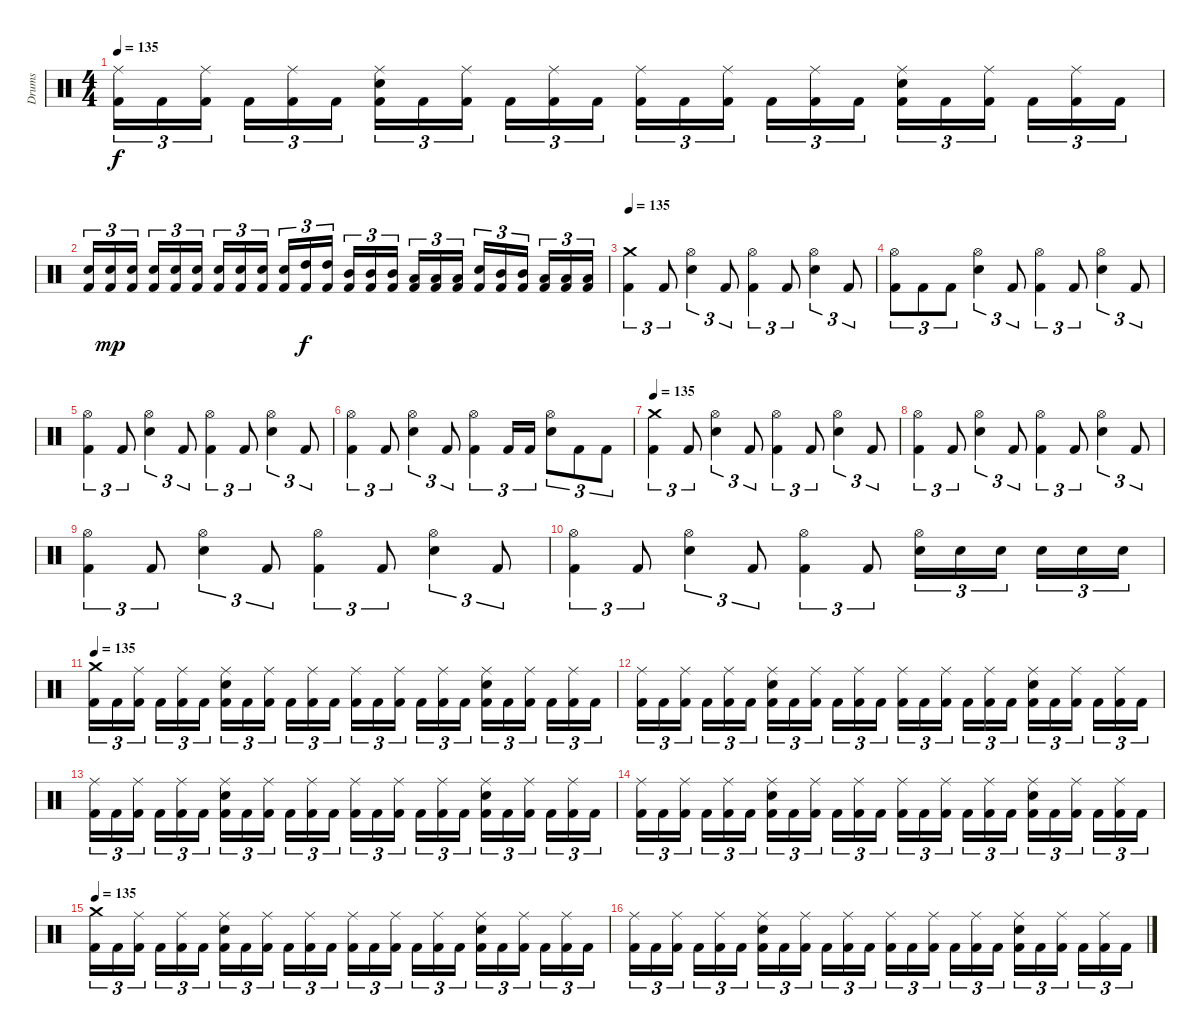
\track ("Drums" "Drums") {instrument percussion}
\staff {score}
\articulation defaults
\ts (4 4)
\tempo 135
\clef neutral
\ks c
("Ride (middle)" "Kick (hit) 2").16{tu (3 2) dy f} "Kick (hit) 2".16{tu (3 2)} ("Ride (middle)" "Kick (hit) 2").16{tu (3 2)} "Kick (hit) 2".16{tu (3 2)} ("Ride (middle)" "Kick (hit) 2").16{tu (3 2)} "Kick (hit) 2".16{tu (3 2)} ("Ride (middle)" "Electric Snare (hit)" "Kick (hit) 2").16{tu (3 2)} "Kick (hit) 2".16{tu (3 2)} ("Ride (middle)" "Kick (hit) 2").16{tu (3 2)} "Kick (hit) 2".16{tu (3 2)} ("Ride (middle)" "Kick (hit) 2").16{tu (3 2)} "Kick (hit) 2".16{tu (3 2)} ("Ride (middle)" "Kick (hit) 2").16{tu (3 2)} "Kick (hit) 2".16{tu (3 2)} ("Ride (middle)" "Kick (hit) 2").16{tu (3 2)} "Kick (hit) 2".16{tu (3 2)} ("Ride (middle)" "Kick (hit) 2").16{tu (3 2)} "Kick (hit) 2".16{tu (3 2)} ("Ride (middle)" "Electric Snare (hit)" "Kick (hit) 2").16{tu (3 2)} "Kick (hit) 2".16{tu (3 2)} ("Ride (middle)" "Kick (hit) 2").16{tu (3 2)} "Kick (hit) 2".16{tu (3 2)} ("Ride (middle)" "Kick (hit) 2").16{tu (3 2)} "Kick (hit) 2".16{tu (3 2)} |
("Electric Snare (hit)" "Kick (hit) 2").16{tu (3 2)} ("Electric Snare (hit)" "Kick (hit) 2").16{tu (3 2) dy mp} ("Electric Snare (hit)" "Kick (hit) 2").16{tu (3 2)} ("Electric Snare (hit)" "Kick (hit) 2").16{tu (3 2)} ("Electric Snare (hit)" "Kick (hit) 2").16{tu (3 2)} ("Electric Snare (hit)" "Kick (hit) 2").16{tu (3 2)} ("Electric Snare (hit)" "Kick (hit) 2").16{tu (3 2)} ("Electric Snare (hit)" "Kick (hit) 2").16{tu (3 2)} ("Electric Snare (hit)" "Kick (hit) 2").16{tu (3 2)} ("Electric Snare (hit)" "Kick (hit) 2").16{tu (3 2)} ("High Tom (hit)" "Kick (hit) 2").16{tu (3 2) dy f} ("High Tom (hit)" "Kick (hit) 2").16{tu (3 2)} ("Mid Tom (hit)" "Kick (hit) 2").16{tu (3 2)} ("Mid Tom (hit)" "Kick (hit) 2").16{tu (3 2)} ("Mid Tom (hit)" "Kick (hit) 2").16{tu (3 2)} ("Low Tom (hit)" "Kick (hit) 2").16{tu (3 2)} ("Low Tom (hit)" "Kick (hit) 2").16{tu (3 2)} ("Low Tom (hit)" "Kick (hit) 2").16{tu (3 2)} ("Electric Snare (hit)" "Kick (hit) 2").16{tu (3 2)} ("Mid Tom (hit)" "Kick (hit) 2").16{tu (3 2)} ("Mid Tom (hit)" "Kick (hit) 2").16{tu (3 2)} ("Low Tom (hit)" "Kick (hit) 2").16{tu (3 2)} ("Low Tom (hit)" "Kick (hit) 2").16{tu (3 2)} ("Low Tom (hit)" "Kick (hit) 2").16{tu (3 2)} |
\tempo 135
("Crash medium (hit)" "Kick (hit) 2").4{tu (3 2)} "Kick (hit) 2".8{tu (3 2)} ("Hi-Hat (open)" "Electric Snare (hit)").4{tu (3 2)} "Kick (hit) 2".8{tu (3 2)} ("Hi-Hat (open)" "Kick (hit) 2").4{tu (3 2)} "Kick (hit) 2".8{tu (3 2)} ("Hi-Hat (open)" "Electric Snare (hit)").4{tu (3 2)} "Kick (hit) 2".8{tu (3 2)} |
("Hi-Hat (open)" "Kick (hit) 2").8{tu (3 2)} "Kick (hit) 2".8{tu (3 2)} "Kick (hit) 2".8{tu (3 2)} ("Hi-Hat (open)" "Electric Snare (hit)").4{tu (3 2)} "Kick (hit) 2".8{tu (3 2)} ("Hi-Hat (open)" "Kick (hit) 2").4{tu (3 2)} "Kick (hit) 2".8{tu (3 2)} ("Hi-Hat (open)" "Electric Snare (hit)").4{tu (3 2)} "Kick (hit) 2".8{tu (3 2)} |
("Hi-Hat (open)" "Kick (hit) 2").4{tu (3 2)} "Kick (hit) 2".8{tu (3 2)} ("Hi-Hat (open)" "Electric Snare (hit)").4{tu (3 2)} "Kick (hit) 2".8{tu (3 2)} ("Hi-Hat (open)" "Kick (hit) 2").4{tu (3 2)} "Kick (hit) 2".8{tu (3 2)} ("Hi-Hat (open)" "Electric Snare (hit)").4{tu (3 2)} "Kick (hit) 2".8{tu (3 2)} |
("Hi-Hat (open)" "Kick (hit) 2").4{tu (3 2)} "Kick (hit) 2".8{tu (3 2)} ("Hi-Hat (open)" "Electric Snare (hit)").4{tu (3 2)} "Kick (hit) 2".8{tu (3 2)} ("Hi-Hat (open)" "Kick (hit) 2").4{tu (3 2)} "Kick (hit) 2".16{tu (3 2)} "Kick (hit) 2".16{tu (3 2)} ("Hi-Hat (open)" "Electric Snare (hit)").8{tu (3 2)} "Kick (hit) 2".8{tu (3 2)} "Kick (hit) 2".8{tu (3 2)} |
\tempo 135
("Crash medium (hit)" "Kick (hit) 2").4{tu (3 2)} "Kick (hit) 2".8{tu (3 2)} ("Hi-Hat (open)" "Electric Snare (hit)").4{tu (3 2)} "Kick (hit) 2".8{tu (3 2)} ("Hi-Hat (open)" "Kick (hit) 2").4{tu (3 2)} "Kick (hit) 2".8{tu (3 2)} ("Hi-Hat (open)" "Electric Snare (hit)").4{tu (3 2)} "Kick (hit) 2".8{tu (3 2)} |
("Hi-Hat (open)" "Kick (hit) 2").4{tu (3 2)} "Kick (hit) 2".8{tu (3 2)} ("Hi-Hat (open)" "Electric Snare (hit)").4{tu (3 2)} "Kick (hit) 2".8{tu (3 2)} ("Hi-Hat (open)" "Kick (hit) 2").4{tu (3 2)} "Kick (hit) 2".8{tu (3 2)} ("Hi-Hat (open)" "Electric Snare (hit)").4{tu (3 2)} "Kick (hit) 2".8{tu (3 2)} |
("Hi-Hat (open)" "Kick (hit) 2").4{tu (3 2)} "Kick (hit) 2".8{tu (3 2)} ("Hi-Hat (open)" "Electric Snare (hit)").4{tu (3 2)} "Kick (hit) 2".8{tu (3 2)} ("Hi-Hat (open)" "Kick (hit) 2").4{tu (3 2)} "Kick (hit) 2".8{tu (3 2)} ("Hi-Hat (open)" "Electric Snare (hit)").4{tu (3 2)} "Kick (hit) 2".8{tu (3 2)} |
("Hi-Hat (open)" "Kick (hit) 2").4{tu (3 2)} "Kick (hit) 2".8{tu (3 2)} ("Hi-Hat (open)" "Electric Snare (hit)").4{tu (3 2)} "Kick (hit) 2".8{tu (3 2)} ("Hi-Hat (open)" "Kick (hit) 2").4{tu (3 2)} "Kick (hit) 2".8{tu (3 2)} ("Hi-Hat (open)" "Electric Snare (hit)").16{tu (3 2)} "Electric Snare (hit)".16{tu (3 2)} "Electric Snare (hit)".16{tu (3 2)} "Electric Snare (hit)".16{tu (3 2)} "Electric Snare (hit)".16{tu (3 2)} "Electric Snare (hit)".16{tu (3 2)} |
\tempo 135
("Crash medium (hit)" "Kick (hit) 2").16{tu (3 2)} "Kick (hit) 2".16{tu (3 2)} ("Ride (middle)" "Kick (hit) 2").16{tu (3 2)} "Kick (hit) 2".16{tu (3 2)} ("Ride (middle)" "Kick (hit) 2").16{tu (3 2)} "Kick (hit) 2".16{tu (3 2)} ("Ride (middle)" "Electric Snare (hit)" "Kick (hit) 2").16{tu (3 2)} "Kick (hit) 2".16{tu (3 2)} ("Ride (middle)" "Kick (hit) 2").16{tu (3 2)} "Kick (hit) 2".16{tu (3 2)} ("Ride (middle)" "Kick (hit) 2").16{tu (3 2)} "Kick (hit) 2".16{tu (3 2)} ("Ride (middle)" "Kick (hit) 2").16{tu (3 2)} "Kick (hit) 2".16{tu (3 2)} ("Ride (middle)" "Kick (hit) 2").16{tu (3 2)} "Kick (hit) 2".16{tu (3 2)} ("Ride (middle)" "Kick (hit) 2").16{tu (3 2)} "Kick (hit) 2".16{tu (3 2)} ("Ride (middle)" "Electric Snare (hit)" "Kick (hit) 2").16{tu (3 2)} "Kick (hit) 2".16{tu (3 2)} ("Ride (middle)" "Kick (hit) 2").16{tu (3 2)} "Kick (hit) 2".16{tu (3 2)} ("Ride (middle)" "Kick (hit) 2").16{tu (3 2)} "Kick (hit) 2".16{tu (3 2)} |
("Ride (middle)" "Kick (hit) 2").16{tu (3 2)} "Kick (hit) 2".16{tu (3 2)} ("Ride (middle)" "Kick (hit) 2").16{tu (3 2)} "Kick (hit) 2".16{tu (3 2)} ("Ride (middle)" "Kick (hit) 2").16{tu (3 2)} "Kick (hit) 2".16{tu (3 2)} ("Ride (middle)" "Electric Snare (hit)" "Kick (hit) 2").16{tu (3 2)} "Kick (hit) 2".16{tu (3 2)} ("Ride (middle)" "Kick (hit) 2").16{tu (3 2)} "Kick (hit) 2".16{tu (3 2)} ("Ride (middle)" "Kick (hit) 2").16{tu (3 2)} "Kick (hit) 2".16{tu (3 2)} ("Ride (middle)" "Kick (hit) 2").16{tu (3 2)} "Kick (hit) 2".16{tu (3 2)} ("Ride (middle)" "Kick (hit) 2").16{tu (3 2)} "Kick (hit) 2".16{tu (3 2)} ("Ride (middle)" "Kick (hit) 2").16{tu (3 2)} "Kick (hit) 2".16{tu (3 2)} ("Ride (middle)" "Electric Snare (hit)" "Kick (hit) 2").16{tu (3 2)} "Kick (hit) 2".16{tu (3 2)} ("Ride (middle)" "Kick (hit) 2").16{tu (3 2)} "Kick (hit) 2".16{tu (3 2)} ("Ride (middle)" "Kick (hit) 2").16{tu (3 2)} "Kick (hit) 2".16{tu (3 2)} |
("Ride (middle)" "Kick (hit) 2").16{tu (3 2)} "Kick (hit) 2".16{tu (3 2)} ("Ride (middle)" "Kick (hit) 2").16{tu (3 2)} "Kick (hit) 2".16{tu (3 2)} ("Ride (middle)" "Kick (hit) 2").16{tu (3 2)} "Kick (hit) 2".16{tu (3 2)} ("Ride (middle)" "Electric Snare (hit)" "Kick (hit) 2").16{tu (3 2)} "Kick (hit) 2".16{tu (3 2)} ("Ride (middle)" "Kick (hit) 2").16{tu (3 2)} "Kick (hit) 2".16{tu (3 2)} ("Ride (middle)" "Kick (hit) 2").16{tu (3 2)} "Kick (hit) 2".16{tu (3 2)} ("Ride (middle)" "Kick (hit) 2").16{tu (3 2)} "Kick (hit) 2".16{tu (3 2)} ("Ride (middle)" "Kick (hit) 2").16{tu (3 2)} "Kick (hit) 2".16{tu (3 2)} ("Ride (middle)" "Kick (hit) 2").16{tu (3 2)} "Kick (hit) 2".16{tu (3 2)} ("Ride (middle)" "Electric Snare (hit)" "Kick (hit) 2").16{tu (3 2)} "Kick (hit) 2".16{tu (3 2)} ("Ride (middle)" "Kick (hit) 2").16{tu (3 2)} "Kick (hit) 2".16{tu (3 2)} ("Ride (middle)" "Kick (hit) 2").16{tu (3 2)} "Kick (hit) 2".16{tu (3 2)} |
("Ride (middle)" "Kick (hit) 2").16{tu (3 2)} "Kick (hit) 2".16{tu (3 2)} ("Ride (middle)" "Kick (hit) 2").16{tu (3 2)} "Kick (hit) 2".16{tu (3 2)} ("Ride (middle)" "Kick (hit) 2").16{tu (3 2)} "Kick (hit) 2".16{tu (3 2)} ("Ride (middle)" "Electric Snare (hit)" "Kick (hit) 2").16{tu (3 2)} "Kick (hit) 2".16{tu (3 2)} ("Ride (middle)" "Kick (hit) 2").16{tu (3 2)} "Kick (hit) 2".16{tu (3 2)} ("Ride (middle)" "Kick (hit) 2").16{tu (3 2)} "Kick (hit) 2".16{tu (3 2)} ("Ride (middle)" "Kick (hit) 2").16{tu (3 2)} "Kick (hit) 2".16{tu (3 2)} ("Ride (middle)" "Kick (hit) 2").16{tu (3 2)} "Kick (hit) 2".16{tu (3 2)} ("Ride (middle)" "Kick (hit) 2").16{tu (3 2)} "Kick (hit) 2".16{tu (3 2)} ("Ride (middle)" "Electric Snare (hit)" "Kick (hit) 2").16{tu (3 2)} "Kick (hit) 2".16{tu (3 2)} ("Ride (middle)" "Kick (hit) 2").16{tu (3 2)} "Kick (hit) 2".16{tu (3 2)} ("Ride (middle)" "Kick (hit) 2").16{tu (3 2)} "Kick (hit) 2".16{tu (3 2)} |
\tempo 135
("Crash medium (hit)" "Kick (hit) 2").16{tu (3 2)} "Kick (hit) 2".16{tu (3 2)} ("Ride (middle)" "Kick (hit) 2").16{tu (3 2)} "Kick (hit) 2".16{tu (3 2)} ("Ride (middle)" "Kick (hit) 2").16{tu (3 2)} "Kick (hit) 2".16{tu (3 2)} ("Ride (middle)" "Electric Snare (hit)" "Kick (hit) 2").16{tu (3 2)} "Kick (hit) 2".16{tu (3 2)} ("Ride (middle)" "Kick (hit) 2").16{tu (3 2)} "Kick (hit) 2".16{tu (3 2)} ("Ride (middle)" "Kick (hit) 2").16{tu (3 2)} "Kick (hit) 2".16{tu (3 2)} ("Ride (middle)" "Kick (hit) 2").16{tu (3 2)} "Kick (hit) 2".16{tu (3 2)} ("Ride (middle)" "Kick (hit) 2").16{tu (3 2)} "Kick (hit) 2".16{tu (3 2)} ("Ride (middle)" "Kick (hit) 2").16{tu (3 2)} "Kick (hit) 2".16{tu (3 2)} ("Ride (middle)" "Electric Snare (hit)" "Kick (hit) 2").16{tu (3 2)} "Kick (hit) 2".16{tu (3 2)} ("Ride (middle)" "Kick (hit) 2").16{tu (3 2)} "Kick (hit) 2".16{tu (3 2)} ("Ride (middle)" "Kick (hit) 2").16{tu (3 2)} "Kick (hit) 2".16{tu (3 2)} |
("Ride (middle)" "Kick (hit) 2").16{tu (3 2)} "Kick (hit) 2".16{tu (3 2)} ("Ride (middle)" "Kick (hit) 2").16{tu (3 2)} "Kick (hit) 2".16{tu (3 2)} ("Ride (middle)" "Kick (hit) 2").16{tu (3 2)} "Kick (hit) 2".16{tu (3 2)} ("Ride (middle)" "Electric Snare (hit)" "Kick (hit) 2").16{tu (3 2)} "Kick (hit) 2".16{tu (3 2)} ("Ride (middle)" "Kick (hit) 2").16{tu (3 2)} "Kick (hit) 2".16{tu (3 2)} ("Ride (middle)" "Kick (hit) 2").16{tu (3 2)} "Kick (hit) 2".16{tu (3 2)} ("Ride (middle)" "Kick (hit) 2").16{tu (3 2)} "Kick (hit) 2".16{tu (3 2)} ("Ride (middle)" "Kick (hit) 2").16{tu (3 2)} "Kick (hit) 2".16{tu (3 2)} ("Ride (middle)" "Kick (hit) 2").16{tu (3 2)} "Kick (hit) 2".16{tu (3 2)} ("Ride (middle)" "Electric Snare (hit)" "Kick (hit) 2").16{tu (3 2)} "Kick (hit) 2".16{tu (3 2)} ("Ride (middle)" "Kick (hit) 2").16{tu (3 2)} "Kick (hit) 2".16{tu (3 2)} ("Ride (middle)" "Kick (hit) 2").16{tu (3 2)} "Kick (hit) 2".16{tu (3 2)}
